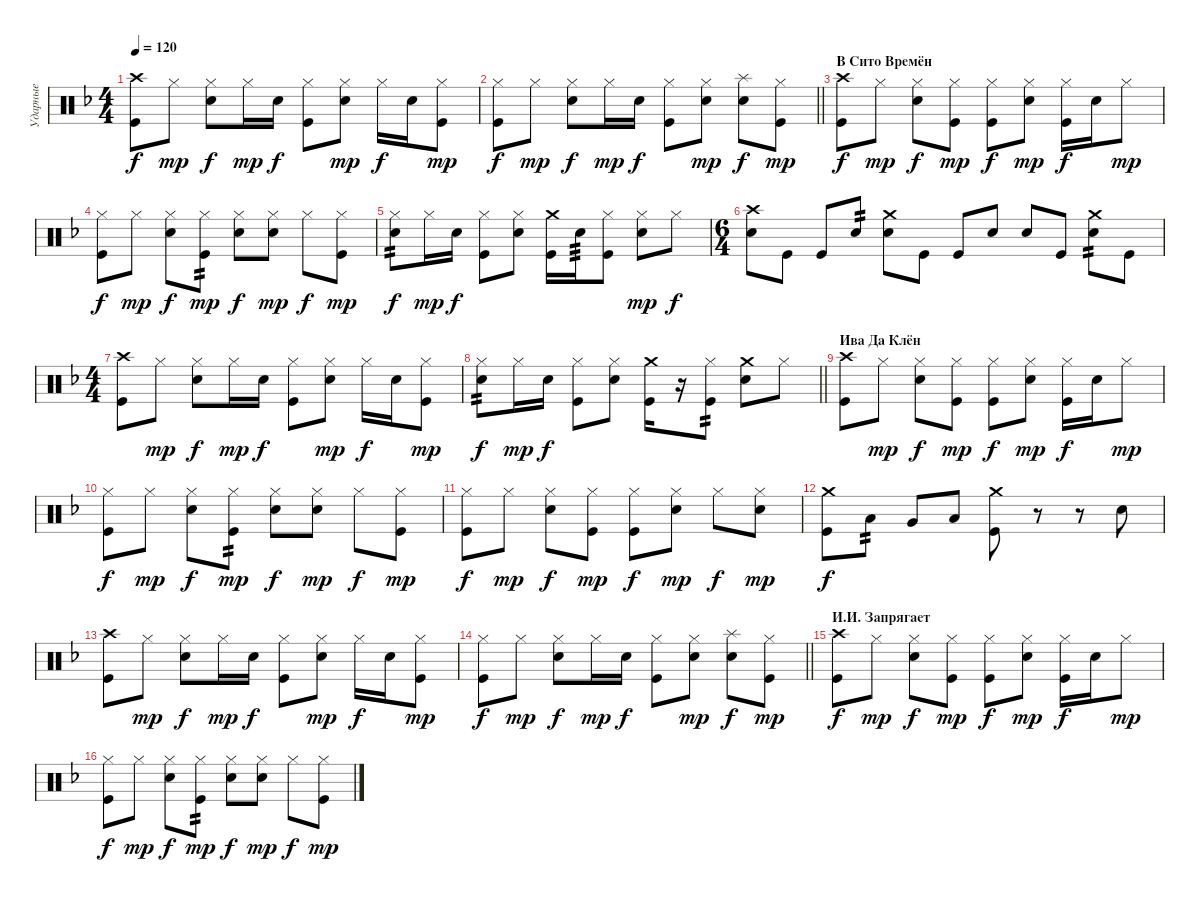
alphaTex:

\track ("Ударные" "Ударные") {instrument percussion}
\staff {score}
\articulation defaults
\ts (4 4)
\tempo 120
\clef neutral
\ks dminor
("Crash high (hit)" "Kick (hit)").8{dy f} "Hi-Hat (closed)".8{dy mp} ("Hi-Hat (closed)" "Snare (hit) 2").8{dy f} "Hi-Hat (closed)".16{dy mp} "Snare (hit) 2".16{dy f} ("Hi-Hat (closed)" "Kick (hit)").8 ("Hi-Hat (closed)" "Snare (hit) 2").8{dy mp} "Hi-Hat (closed)".16{dy f} "Snare (hit) 2".16 ("Hi-Hat (closed)" "Kick (hit)").8{dy mp} |
\barLineRight lightlight
("Hi-Hat (closed)" "Kick (hit)").8{dy f} "Hi-Hat (closed)".8{dy mp} ("Hi-Hat (closed)" "Snare (hit) 2").8{dy f} "Hi-Hat (closed)".16{dy mp} "Snare (hit) 2".16{dy f} ("Hi-Hat (closed)" "Kick (hit)").8 ("Hi-Hat (closed)" "Snare (hit) 2").8{dy mp} ("Splash (hit)" "Snare (hit) 2").8{dy f} ("Hi-Hat (closed)" "Kick (hit)").8{dy mp} |
\section ("" "В Сито Времён")
("Crash high (hit)" "Kick (hit)").8{dy f} "Hi-Hat (closed)".8{dy mp} ("Hi-Hat (closed)" "Snare (hit) 2").8{dy f} ("Hi-Hat (closed)" "Kick (hit)").8{dy mp} ("Hi-Hat (closed)" "Kick (hit)").8{dy f} ("Hi-Hat (closed)" "Snare (hit) 2").8{dy mp} ("Hi-Hat (closed)" "Kick (hit)").16{dy f} "Snare (hit) 2".16 "Hi-Hat (closed)".8{dy mp} |
("Hi-Hat (closed)" "Kick (hit)").8{dy f} "Hi-Hat (closed)".8{dy mp} ("Hi-Hat (closed)" "Snare (hit) 2").8{dy f} ("Hi-Hat (closed)" "Kick (hit)").8{tp 2 dy mp} ("Hi-Hat (closed)" "Snare (hit) 2").8{dy f} ("Hi-Hat (closed)" "Snare (hit) 2").8{dy mp} "Hi-Hat (closed)".8{dy f} ("Hi-Hat (closed)" "Kick (hit)").8{dy mp} |
("Hi-Hat (closed)" "Snare (hit) 2").8{tp 2 dy f} "Hi-Hat (closed)".16{dy mp} "Snare (hit) 2".16{dy f} ("Hi-Hat (closed)" "Kick (hit)").8 ("Hi-Hat (closed)" "Snare (hit) 2").8 ("Crash medium (hit)" "Kick (hit)").16 "Snare (hit) 2".16{tp 3} ("Hi-Hat (closed)" "Kick (hit)").8 ("Hi-Hat (closed)" "Snare (hit) 2").8{dy mp} "Hi-Hat (closed)".8{dy f} |
\ts (6 4)
("Crash high (hit)" "Snare (hit) 2").8 "Kick (hit)".8 "Kick (hit)".8 "Snare (hit) 2".8{tp 2} ("Crash medium (hit)" "Snare (hit) 2").8 "Kick (hit)".8 "Kick (hit)".8 "Snare (hit) 2".8 "Snare (hit) 2".8 "Kick (hit)".8 ("Crash medium (hit)" "Snare (hit) 2").8{tp 2} "Kick (hit)".8 |
\ts (4 4)
("Crash high (hit)" "Kick (hit)").8 "Hi-Hat (closed)".8{dy mp} ("Hi-Hat (closed)" "Snare (hit) 2").8{dy f} "Hi-Hat (closed)".16{dy mp} "Snare (hit) 2".16{dy f} ("Hi-Hat (closed)" "Kick (hit)").8 ("Hi-Hat (closed)" "Snare (hit) 2").8{dy mp} "Hi-Hat (closed)".16{dy f} "Snare (hit) 2".16 ("Hi-Hat (closed)" "Kick (hit)").8{dy mp} |
\barLineRight lightlight
("Hi-Hat (closed)" "Snare (hit) 2").8{tp 2 dy f} "Hi-Hat (closed)".16{dy mp} "Snare (hit) 2".16{dy f} ("Hi-Hat (closed)" "Kick (hit)").8 ("Hi-Hat (closed)" "Snare (hit) 2").8 ("Crash medium (hit)" "Kick (hit)").16 r.16 ("Hi-Hat (closed)" "Kick (hit)").8{tp 2} ("Crash medium (hit)" "Snare (hit) 2").8 "Hi-Hat (closed)".8 |
\section ("" "Ива Да Клён")
("Crash high (hit)" "Kick (hit)").8 "Hi-Hat (closed)".8{dy mp} ("Hi-Hat (closed)" "Snare (hit) 2").8{dy f} ("Hi-Hat (closed)" "Kick (hit)").8{dy mp} ("Hi-Hat (closed)" "Kick (hit)").8{dy f} ("Hi-Hat (closed)" "Snare (hit) 2").8{dy mp} ("Hi-Hat (closed)" "Kick (hit)").16{dy f} "Snare (hit) 2".16 "Hi-Hat (closed)".8{dy mp} |
("Hi-Hat (closed)" "Kick (hit)").8{dy f} "Hi-Hat (closed)".8{dy mp} ("Hi-Hat (closed)" "Snare (hit) 2").8{dy f} ("Hi-Hat (closed)" "Kick (hit)").8{tp 2 dy mp} ("Hi-Hat (closed)" "Snare (hit) 2").8{dy f} ("Hi-Hat (closed)" "Snare (hit) 2").8{dy mp} "Hi-Hat (closed)".8{dy f} ("Hi-Hat (closed)" "Kick (hit)").8{dy mp} |
("Hi-Hat (closed)" "Kick (hit)").8{dy f} "Hi-Hat (closed)".8{dy mp} ("Hi-Hat (closed)" "Snare (hit) 2").8{dy f} ("Hi-Hat (closed)" "Kick (hit)").8{dy mp} ("Hi-Hat (closed)" "Kick (hit)").8{dy f} ("Hi-Hat (closed)" "Snare (hit) 2").8{dy mp} "Hi-Hat (closed)".8{dy f} ("Hi-Hat (closed)" "Snare (hit) 2").8{dy mp} |
("Crash medium (hit)" "Kick (hit)").8{dy f} "Low Tom (hit)".8{tp 2} "Very Low Tom (hit)".8 "Low Floor Tom (hit)".8 ("Crash medium (hit)" "Kick (hit)").8 r.8 r.8 "Snare (hit) 2".8 |
("Crash high (hit)" "Kick (hit)").8 "Hi-Hat (closed)".8{dy mp} ("Hi-Hat (closed)" "Snare (hit) 2").8{dy f} "Hi-Hat (closed)".16{dy mp} "Snare (hit) 2".16{dy f} ("Hi-Hat (closed)" "Kick (hit)").8 ("Hi-Hat (closed)" "Snare (hit) 2").8{dy mp} "Hi-Hat (closed)".16{dy f} "Snare (hit) 2".16 ("Hi-Hat (closed)" "Kick (hit)").8{dy mp} |
\barLineRight lightlight
("Hi-Hat (closed)" "Kick (hit)").8{dy f} "Hi-Hat (closed)".8{dy mp} ("Hi-Hat (closed)" "Snare (hit) 2").8{dy f} "Hi-Hat (closed)".16{dy mp} "Snare (hit) 2".16{dy f} ("Hi-Hat (closed)" "Kick (hit)").8 ("Hi-Hat (closed)" "Snare (hit) 2").8{dy mp} ("Splash (hit)" "Snare (hit) 2").8{dy f} ("Hi-Hat (closed)" "Kick (hit)").8{dy mp} |
\section ("" "И.И. Запрягает")
("Crash high (hit)" "Kick (hit)").8{dy f} "Hi-Hat (closed)".8{dy mp} ("Hi-Hat (closed)" "Snare (hit) 2").8{dy f} ("Hi-Hat (closed)" "Kick (hit)").8{dy mp} ("Hi-Hat (closed)" "Kick (hit)").8{dy f} ("Hi-Hat (closed)" "Snare (hit) 2").8{dy mp} ("Hi-Hat (closed)" "Kick (hit)").16{dy f} "Snare (hit) 2".16 "Hi-Hat (closed)".8{dy mp} |
("Hi-Hat (closed)" "Kick (hit)").8{dy f} "Hi-Hat (closed)".8{dy mp} ("Hi-Hat (closed)" "Snare (hit) 2").8{dy f} ("Hi-Hat (closed)" "Kick (hit)").8{tp 2 dy mp} ("Hi-Hat (closed)" "Snare (hit) 2").8{dy f} ("Hi-Hat (closed)" "Snare (hit) 2").8{dy mp} "Hi-Hat (closed)".8{dy f} ("Hi-Hat (closed)" "Kick (hit)").8{dy mp}
